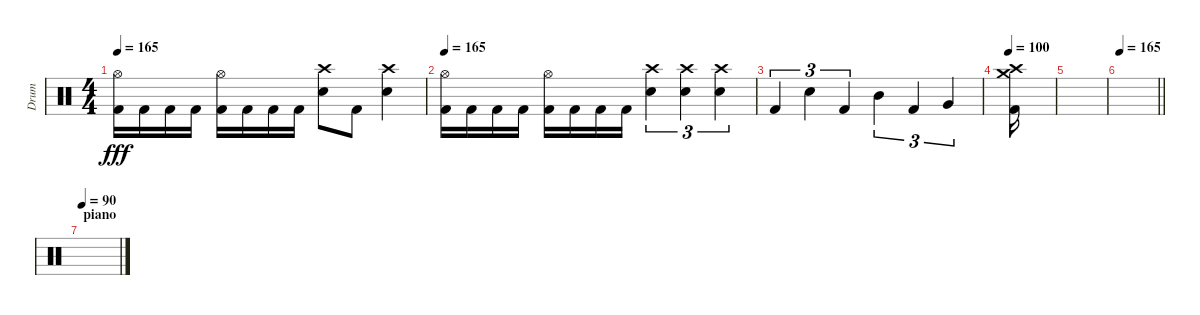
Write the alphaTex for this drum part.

\track ("Drum" "Drum") {instrument percussion}
\staff {score}
\articulation defaults
\ts (4 4)
\tempo 165
\clef neutral
\ks c
("Hi-Hat (open)" "Kick (hit) 2").16{dy fff} "Kick (hit) 2".16 "Kick (hit) 2".16 "Kick (hit) 2".16 ("Hi-Hat (open)" "Kick (hit) 2").16 "Kick (hit) 2".16 "Kick (hit) 2".16 "Kick (hit) 2".16 ("Crash high (hit)" "Electric Snare (hit)").8 "Kick (hit) 2".8 ("Crash high (hit)" "Electric Snare (hit)").4 |
\tempo 165
("Hi-Hat (open)" "Kick (hit) 2").16 "Kick (hit) 2".16 "Kick (hit) 2".16 "Kick (hit) 2".16 ("Hi-Hat (open)" "Kick (hit) 2").16 "Kick (hit) 2".16 "Kick (hit) 2".16 "Kick (hit) 2".16 ("Crash high (hit)" "Electric Snare (hit)").4{tu (3 2)} ("Crash high (hit)" "Electric Snare (hit)").4{tu (3 2)} ("Crash high (hit)" "Electric Snare (hit)").4{tu (3 2)} |
"Kick (hit) 2".4{tu (3 2)} "Electric Snare (hit)".4{tu (3 2)} "Kick (hit) 2".4{tu (3 2)} "Mid Tom (hit)".4{tu (3 2)} "Kick (hit) 2".4{tu (3 2)} "Very Low Tom (hit)".4{tu (3 2)} |
\tempo 100
("Crash high (hit)" "Crash medium (hit)" "Kick (hit) 2").16 |
|
\tempo 165
\barLineRight lightlight
|
\section ("" "piano")
\tempo 90
